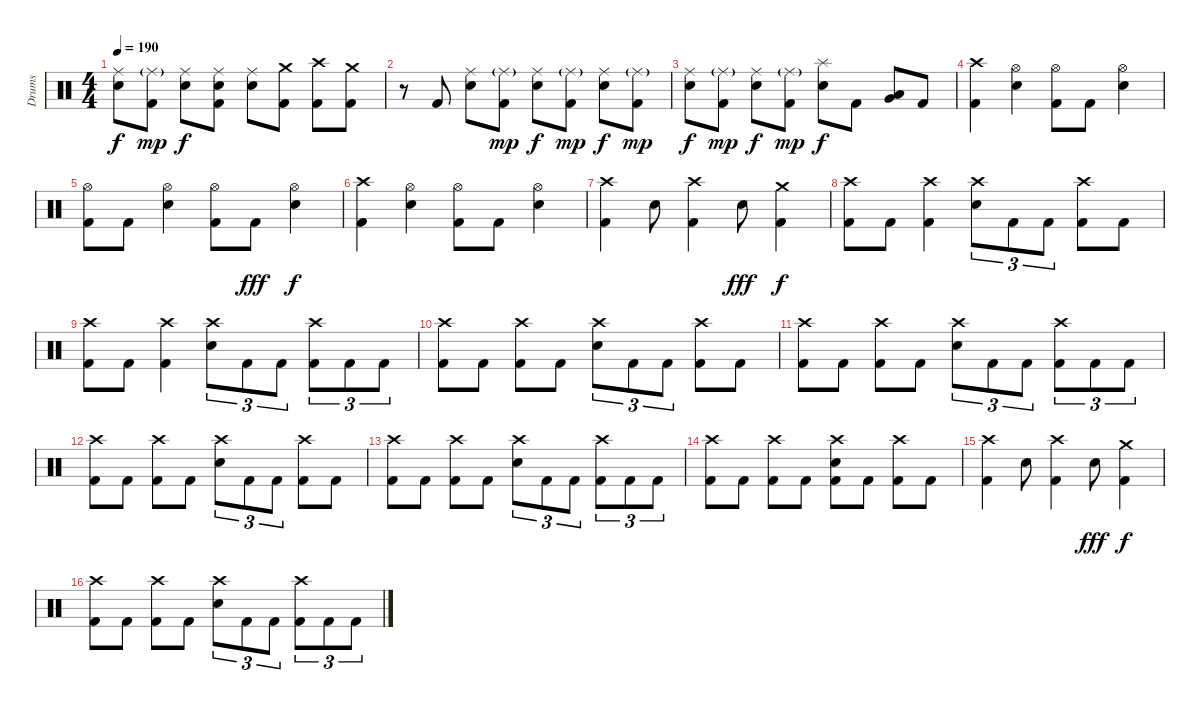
\track ("Drums" "Drums") {instrument percussion}
\staff {score}
\articulation defaults
\ts (4 4)
\tempo 190
\clef neutral
\ks c
("Ride (middle)" "Electric Snare (hit)").8{dy f} ("Ride (middle)"{g} "Kick (hit) 2").8{dy mp} ("Ride (middle)" "Electric Snare (hit)").8{dy f} ("Ride (middle)" "Electric Snare (hit)" "Kick (hit) 2").8 ("Ride (middle)" "Electric Snare (hit)").8 ("Crash medium (hit)" "Kick (hit) 2").8 ("Crash high (hit)" "Kick (hit) 2").8 ("Crash medium (hit)" "Kick (hit) 2").8 |
r.8 "Kick (hit) 2".8 ("Ride (middle)" "Electric Snare (hit)").8 ("Ride (middle)"{g} "Kick (hit) 2").8{dy mp} ("Ride (middle)" "Electric Snare (hit)").8{dy f} ("Ride (middle)"{g} "Kick (hit) 2").8{dy mp} ("Ride (middle)" "Electric Snare (hit)").8{dy f} ("Ride (middle)"{g} "Kick (hit) 2").8{dy mp} |
("Ride (middle)" "Electric Snare (hit)").8{dy f} ("Ride (middle)"{g} "Kick (hit) 2").8{dy mp} ("Ride (middle)" "Electric Snare (hit)").8{dy f} ("Ride (middle)"{g} "Kick (hit) 2").8{dy mp} ("Splash (hit)" "Electric Snare (hit)").8{dy f} "Kick (hit) 2".8 ("Low Tom (hit)" "Very Low Tom (hit)").8 "Kick (hit) 2".8 |
("Crash high (hit)" "Kick (hit) 2").4 ("Hi-Hat (open)" "Electric Snare (hit)").4 ("Hi-Hat (open)" "Kick (hit) 2").8 "Kick (hit) 2".8 ("Hi-Hat (open)" "Electric Snare (hit)").4 |
("Hi-Hat (open)" "Kick (hit) 2").8 "Kick (hit) 2".8 ("Hi-Hat (open)" "Electric Snare (hit)").4 ("Hi-Hat (open)" "Kick (hit) 2").8 "Kick (hit) 2".8{dy fff} ("Hi-Hat (open)" "Electric Snare (hit)").4{dy f} |
("Crash high (hit)" "Kick (hit) 2").4 ("Hi-Hat (open)" "Electric Snare (hit)").4 ("Hi-Hat (open)" "Kick (hit) 2").8 "Kick (hit) 2".8 ("Hi-Hat (open)" "Electric Snare (hit)").4 |
("Crash high (hit)" "Kick (hit) 2").4 "Electric Snare (hit)".8 ("Crash high (hit)" "Kick (hit) 2").4 "Electric Snare (hit)".8{dy fff} ("Crash medium (hit)" "Kick (hit) 2").4{dy f} |
("Crash high (hit)" "Kick (hit) 2").8 "Kick (hit) 2".8 ("Crash high (hit)" "Kick (hit) 2").4 ("Crash high (hit)" "Electric Snare (hit)").8{tu (3 2)} "Kick (hit) 2".8{tu (3 2)} "Kick (hit) 2".8{tu (3 2)} ("Crash high (hit)" "Kick (hit) 2").8 "Kick (hit) 2".8 |
("Crash high (hit)" "Kick (hit) 2").8 "Kick (hit) 2".8 ("Crash high (hit)" "Kick (hit) 2").4 ("Crash high (hit)" "Electric Snare (hit)").8{tu (3 2)} "Kick (hit) 2".8{tu (3 2)} "Kick (hit) 2".8{tu (3 2)} ("Crash high (hit)" "Kick (hit) 2").8{tu (3 2)} "Kick (hit) 2".8{tu (3 2)} "Kick (hit) 2".8{tu (3 2)} |
("Crash high (hit)" "Kick (hit) 2").8 "Kick (hit) 2".8 ("Crash high (hit)" "Kick (hit) 2").8 "Kick (hit) 2".8 ("Crash high (hit)" "Electric Snare (hit)").8{tu (3 2)} "Kick (hit) 2".8{tu (3 2)} "Kick (hit) 2".8{tu (3 2)} ("Crash high (hit)" "Kick (hit) 2").8 "Kick (hit) 2".8 |
("Crash high (hit)" "Kick (hit) 2").8 "Kick (hit) 2".8 ("Crash high (hit)" "Kick (hit) 2").8 "Kick (hit) 2".8 ("Crash high (hit)" "Electric Snare (hit)").8{tu (3 2)} "Kick (hit) 2".8{tu (3 2)} "Kick (hit) 2".8{tu (3 2)} ("Crash high (hit)" "Kick (hit) 2").8{tu (3 2)} "Kick (hit) 2".8{tu (3 2)} "Kick (hit) 2".8{tu (3 2)} |
("Crash high (hit)" "Kick (hit) 2").8 "Kick (hit) 2".8 ("Crash high (hit)" "Kick (hit) 2").8 "Kick (hit) 2".8 ("Crash high (hit)" "Electric Snare (hit)").8{tu (3 2)} "Kick (hit) 2".8{tu (3 2)} "Kick (hit) 2".8{tu (3 2)} ("Crash high (hit)" "Kick (hit) 2").8 "Kick (hit) 2".8 |
("Crash high (hit)" "Kick (hit) 2").8 "Kick (hit) 2".8 ("Crash high (hit)" "Kick (hit) 2").8 "Kick (hit) 2".8 ("Crash high (hit)" "Electric Snare (hit)").8{tu (3 2)} "Kick (hit) 2".8{tu (3 2)} "Kick (hit) 2".8{tu (3 2)} ("Crash high (hit)" "Kick (hit) 2").8{tu (3 2)} "Kick (hit) 2".8{tu (3 2)} "Kick (hit) 2".8{tu (3 2)} |
("Crash high (hit)" "Kick (hit) 2").8 "Kick (hit) 2".8 ("Crash high (hit)" "Kick (hit) 2").8 "Kick (hit) 2".8 ("Crash high (hit)" "Electric Snare (hit)" "Kick (hit) 2").8 "Kick (hit) 2".8 ("Crash high (hit)" "Kick (hit) 2").8 "Kick (hit) 2".8 |
("Crash high (hit)" "Kick (hit) 2").4 "Electric Snare (hit)".8 ("Crash high (hit)" "Kick (hit) 2").4 "Electric Snare (hit)".8{dy fff} ("Crash medium (hit)" "Kick (hit) 2").4{dy f} |
("Crash high (hit)" "Kick (hit) 2").8 "Kick (hit) 2".8 ("Crash high (hit)" "Kick (hit) 2").8 "Kick (hit) 2".8 ("Crash high (hit)" "Electric Snare (hit)").8{tu (3 2)} "Kick (hit) 2".8{tu (3 2)} "Kick (hit) 2".8{tu (3 2)} ("Crash high (hit)" "Kick (hit) 2").8{tu (3 2)} "Kick (hit) 2".8{tu (3 2)} "Kick (hit) 2".8{tu (3 2)}
